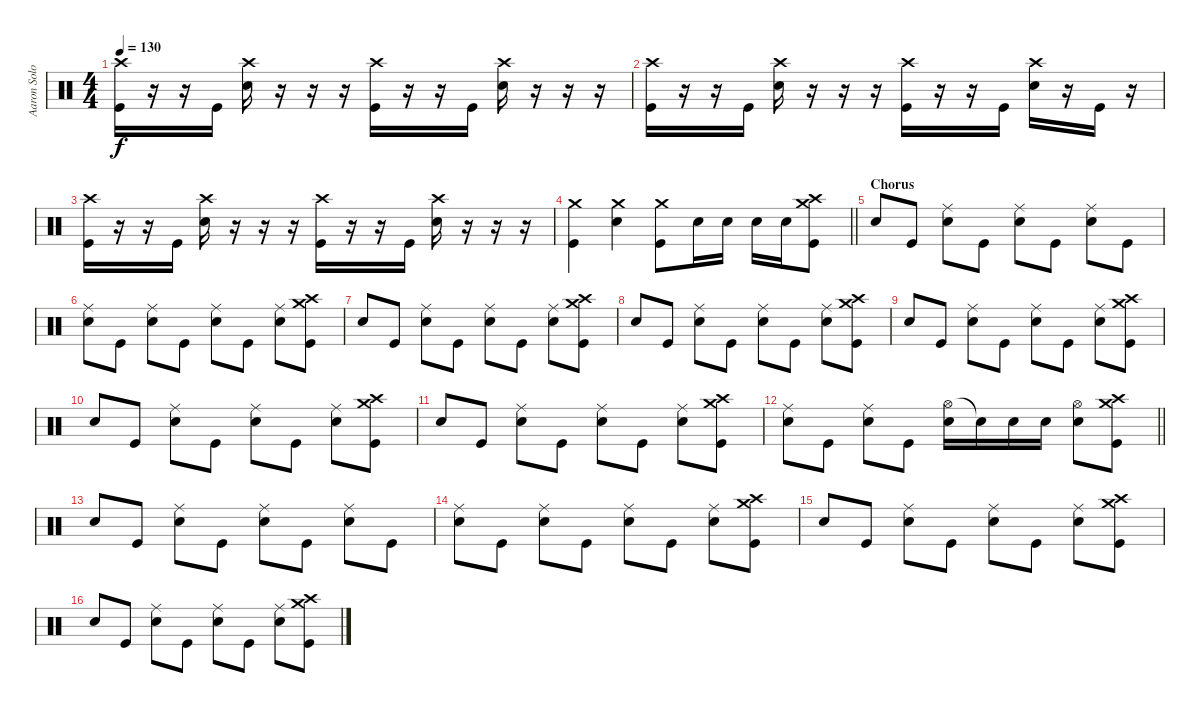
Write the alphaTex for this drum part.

\track ("Aaron Solowoniuk" "Aaron Solo") {instrument percussion}
\staff {score}
\articulation defaults
\ts (4 4)
\tempo 130
\clef neutral
\ks c
("Crash high (hit)" "Kick (hit)").16{dy f} r.16 r.16 "Kick (hit)".16 ("Crash high (hit)" "Electric Snare (hit)").16 r.16 r.16 r.16 ("Crash high (hit)" "Kick (hit)").16 r.16 r.16 "Kick (hit)".16 ("Crash high (hit)" "Electric Snare (hit)").16 r.16 r.16 r.16 |
("Crash high (hit)" "Kick (hit)").16 r.16 r.16 "Kick (hit)".16 ("Crash high (hit)" "Electric Snare (hit)").16 r.16 r.16 r.16 ("Crash high (hit)" "Kick (hit)").16 r.16 r.16 "Kick (hit)".16 ("Crash high (hit)" "Electric Snare (hit)").16 r.16 "Kick (hit)".16 r.16 |
("Crash high (hit)" "Kick (hit)").16 r.16 r.16 "Kick (hit)".16 ("Crash high (hit)" "Electric Snare (hit)").16 r.16 r.16 r.16 ("Crash high (hit)" "Kick (hit)").16 r.16 r.16 "Kick (hit)".16 ("Crash high (hit)" "Electric Snare (hit)").16 r.16 r.16 r.16 |
\barLineRight lightlight
("Crash medium (hit)" "Kick (hit)").4 ("Crash medium (hit)" "Electric Snare (hit)").4 ("Crash medium (hit)" "Kick (hit)").8 "Electric Snare (hit)".16 "Electric Snare (hit)".16 "Electric Snare (hit)".16 "Electric Snare (hit)".16 ("Crash medium (hit)" "Crash high (hit)" "Kick (hit)").8 |
\section ("" "Chorus")
"Electric Snare (hit)".8 "Kick (hit)".8 ("Ride (middle)" "Electric Snare (hit)").8 "Kick (hit)".8 ("Ride (middle)" "Electric Snare (hit)").8 "Kick (hit)".8 ("Ride (middle)" "Electric Snare (hit)").8 "Kick (hit)".8 |
("Ride (middle)" "Electric Snare (hit)").8 "Kick (hit)".8 ("Ride (middle)" "Electric Snare (hit)").8 "Kick (hit)".8 ("Ride (middle)" "Electric Snare (hit)").8 "Kick (hit)".8 ("Ride (middle)" "Electric Snare (hit)").8 ("Crash medium (hit)" "Crash high (hit)" "Kick (hit)").8 |
"Electric Snare (hit)".8 "Kick (hit)".8 ("Ride (middle)" "Electric Snare (hit)").8 "Kick (hit)".8 ("Ride (middle)" "Electric Snare (hit)").8 "Kick (hit)".8 ("Ride (middle)" "Electric Snare (hit)").8 ("Crash medium (hit)" "Crash high (hit)" "Kick (hit)").8 |
"Electric Snare (hit)".8 "Kick (hit)".8 ("Ride (middle)" "Electric Snare (hit)").8 "Kick (hit)".8 ("Ride (middle)" "Electric Snare (hit)").8 "Kick (hit)".8 ("Ride (middle)" "Electric Snare (hit)").8 ("Crash medium (hit)" "Crash high (hit)" "Kick (hit)").8 |
"Electric Snare (hit)".8 "Kick (hit)".8 ("Ride (middle)" "Electric Snare (hit)").8 "Kick (hit)".8 ("Ride (middle)" "Electric Snare (hit)").8 "Kick (hit)".8 ("Ride (middle)" "Electric Snare (hit)").8 ("Crash medium (hit)" "Crash high (hit)" "Kick (hit)").8 |
"Electric Snare (hit)".8 "Kick (hit)".8 ("Ride (middle)" "Electric Snare (hit)").8 "Kick (hit)".8 ("Ride (middle)" "Electric Snare (hit)").8 "Kick (hit)".8 ("Ride (middle)" "Electric Snare (hit)").8 ("Crash medium (hit)" "Crash high (hit)" "Kick (hit)").8 |
"Electric Snare (hit)".8 "Kick (hit)".8 ("Ride (middle)" "Electric Snare (hit)").8 "Kick (hit)".8 ("Ride (middle)" "Electric Snare (hit)").8 "Kick (hit)".8 ("Ride (middle)" "Electric Snare (hit)").8 ("Crash medium (hit)" "Crash high (hit)" "Kick (hit)").8 |
\barLineRight lightlight
("Ride (middle)" "Electric Snare (hit)").8 "Kick (hit)".8 ("Ride (middle)" "Electric Snare (hit)").8 "Kick (hit)".8 ("Hi-Hat (open)" "Electric Snare (hit)").16 "Electric Snare (hit)"{t}.16 "Electric Snare (hit)".16 "Electric Snare (hit)".16 ("Hi-Hat (open)" "Electric Snare (hit)").8 ("Crash medium (hit)" "Crash high (hit)" "Kick (hit)").8 |
"Electric Snare (hit)".8 "Kick (hit)".8 ("Ride (middle)" "Electric Snare (hit)").8 "Kick (hit)".8 ("Ride (middle)" "Electric Snare (hit)").8 "Kick (hit)".8 ("Ride (middle)" "Electric Snare (hit)").8 "Kick (hit)".8 |
("Ride (middle)" "Electric Snare (hit)").8 "Kick (hit)".8 ("Ride (middle)" "Electric Snare (hit)").8 "Kick (hit)".8 ("Ride (middle)" "Electric Snare (hit)").8 "Kick (hit)".8 ("Ride (middle)" "Electric Snare (hit)").8 ("Crash medium (hit)" "Crash high (hit)" "Kick (hit)").8 |
"Electric Snare (hit)".8 "Kick (hit)".8 ("Ride (middle)" "Electric Snare (hit)").8 "Kick (hit)".8 ("Ride (middle)" "Electric Snare (hit)").8 "Kick (hit)".8 ("Ride (middle)" "Electric Snare (hit)").8 ("Crash medium (hit)" "Crash high (hit)" "Kick (hit)").8 |
"Electric Snare (hit)".8 "Kick (hit)".8 ("Ride (middle)" "Electric Snare (hit)").8 "Kick (hit)".8 ("Ride (middle)" "Electric Snare (hit)").8 "Kick (hit)".8 ("Ride (middle)" "Electric Snare (hit)").8 ("Crash medium (hit)" "Crash high (hit)" "Kick (hit)").8
